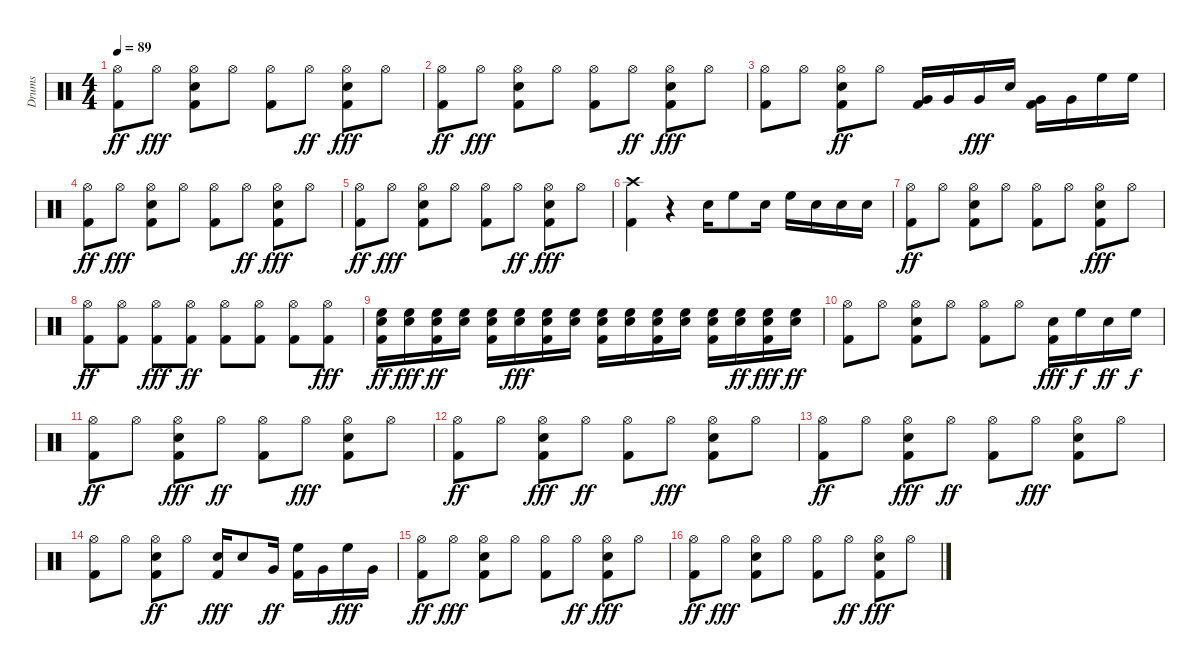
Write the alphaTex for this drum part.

\track ("Drums" "Drums") {instrument percussion}
\staff {score}
\articulation defaults
\ts (4 4)
\tempo 89
\clef neutral
\ks c
("Kick (hit) 2" "Hi-Hat (open)").8{dy ff} "Hi-Hat (open)".8{dy fff} ("Kick (hit) 2" "Snare (hit) 2" "Hi-Hat (open)").8 "Hi-Hat (open)".8 ("Kick (hit) 2" "Hi-Hat (open)").8 "Hi-Hat (open)".8{dy ff} ("Kick (hit) 2" "Hi-Hat (open)" "Snare (hit) 2").8{dy fff} "Hi-Hat (open)".8 |
("Kick (hit) 2" "Hi-Hat (open)").8{dy ff} "Hi-Hat (open)".8{dy fff} ("Kick (hit) 2" "Snare (hit) 2" "Hi-Hat (open)").8 "Hi-Hat (open)".8 ("Kick (hit) 2" "Hi-Hat (open)").8 "Hi-Hat (open)".8{dy ff} ("Kick (hit) 2" "Hi-Hat (open)" "Snare (hit) 2").8{dy fff} "Hi-Hat (open)".8 |
("Kick (hit) 2" "Hi-Hat (open)").8 "Hi-Hat (open)".8 ("Kick (hit) 2" "Hi-Hat (open)" "Snare (hit) 2").8{dy ff} "Hi-Hat (open)".8 ("Kick (hit) 2" "Very Low Tom (hit)").16 "Very Low Tom (hit)".16 "Very Low Tom (hit)".16{dy fff} "Snare (hit) 2".16 ("Kick (hit) 2" "Very Low Tom (hit)").16 "Very Low Tom (hit)".16 "High Floor Tom (hit)".16 "High Floor Tom (hit)".16 |
("Kick (hit) 2" "Hi-Hat (open)").8{dy ff} "Hi-Hat (open)".8{dy fff} ("Kick (hit) 2" "Snare (hit) 2" "Hi-Hat (open)").8 "Hi-Hat (open)".8 ("Kick (hit) 2" "Hi-Hat (open)").8 "Hi-Hat (open)".8{dy ff} ("Kick (hit) 2" "Hi-Hat (open)" "Snare (hit) 2").8{dy fff} "Hi-Hat (open)".8 |
("Kick (hit) 2" "Hi-Hat (open)").8{dy ff} "Hi-Hat (open)".8{dy fff} ("Kick (hit) 2" "Snare (hit) 2" "Hi-Hat (open)").8 "Hi-Hat (open)".8 ("Kick (hit) 2" "Hi-Hat (open)").8 "Hi-Hat (open)".8{dy ff} ("Kick (hit) 2" "Hi-Hat (open)" "Snare (hit) 2").8{dy fff} "Hi-Hat (open)".8 |
("Crash high (hit)" "Kick (hit) 2").4 r.4 "Snare (hit) 2".16 "High Floor Tom (hit)".8 "Snare (hit) 2".16 "High Floor Tom (hit)".16 "Snare (hit) 2".16 "Snare (hit) 2".16 "Snare (hit) 2".16 |
("Kick (hit) 2" "Hi-Hat (open)").8{dy ff} "Hi-Hat (open)".8 ("Kick (hit) 2" "Snare (hit) 2" "Hi-Hat (open)").8 "Hi-Hat (open)".8 ("Kick (hit) 2" "Hi-Hat (open)").8 "Hi-Hat (open)".8 ("Kick (hit) 2" "Hi-Hat (open)" "Snare (hit) 2").8{dy fff} "Hi-Hat (open)".8 |
("Kick (hit) 2" "Hi-Hat (open)").8{dy ff} ("Hi-Hat (open)" "Kick (hit) 2").8 ("Hi-Hat (open)" "Kick (hit) 2").8{dy fff} ("Hi-Hat (open)" "Kick (hit) 2").8{dy ff} ("Hi-Hat (open)" "Kick (hit) 2").8 ("Kick (hit) 2" "Hi-Hat (open)").8 ("Hi-Hat (open)" "Kick (hit) 2").8 ("Hi-Hat (open)" "Kick (hit) 2").8{dy fff} |
("Kick (hit) 2" "Snare (hit) 2" "High Floor Tom (hit)").16{dy ff} ("High Floor Tom (hit)" "Snare (hit) 2").16{dy fff} ("Kick (hit) 2" "Snare (hit) 2" "High Floor Tom (hit)").16{dy ff} ("High Floor Tom (hit)" "Snare (hit) 2").16 ("Kick (hit) 2" "High Floor Tom (hit)" "Snare (hit) 2").16 ("High Floor Tom (hit)" "Snare (hit) 2").16{dy fff} ("Kick (hit) 2" "High Floor Tom (hit)" "Snare (hit) 2").16 ("High Floor Tom (hit)" "Snare (hit) 2").16 ("Kick (hit) 2" "High Floor Tom (hit)" "Snare (hit) 2").16 ("High Floor Tom (hit)" "Snare (hit) 2").16 ("Kick (hit) 2" "High Floor Tom (hit)" "Snare (hit) 2").16 ("High Floor Tom (hit)" "Snare (hit) 2").16 ("Kick (hit) 2" "High Floor Tom (hit)" "Snare (hit) 2").16 ("Snare (hit) 2" "High Floor Tom (hit)").16{dy ff} ("Kick (hit) 2" "High Floor Tom (hit)" "Snare (hit) 2").16{dy fff} ("Snare (hit) 2" "High Floor Tom (hit)").16{dy ff} |
("Kick (hit) 2" "Hi-Hat (open)").8 "Hi-Hat (open)".8 ("Kick (hit) 2" "Snare (hit) 2" "Hi-Hat (open)").8 "Hi-Hat (open)".8 ("Kick (hit) 2" "Hi-Hat (open)").8 "Hi-Hat (open)".8 ("Kick (hit) 2" "Snare (hit) 2").16{dy fff} "High Floor Tom (hit)".16{dy f} "Snare (hit) 2".16{dy ff} "High Floor Tom (hit)".16{dy f} |
("Kick (hit) 2" "Hi-Hat (open)").8{dy ff} "Hi-Hat (open)".8 ("Kick (hit) 2" "Hi-Hat (open)" "Snare (hit) 2").8{dy fff} "Hi-Hat (open)".8{dy ff} ("Kick (hit) 2" "Hi-Hat (open)").8 "Hi-Hat (open)".8{dy fff} ("Kick (hit) 2" "Hi-Hat (open)" "Snare (hit) 2").8 "Hi-Hat (open)".8 |
("Kick (hit) 2" "Hi-Hat (open)").8{dy ff} "Hi-Hat (open)".8 ("Kick (hit) 2" "Hi-Hat (open)" "Snare (hit) 2").8{dy fff} "Hi-Hat (open)".8{dy ff} ("Kick (hit) 2" "Hi-Hat (open)").8 "Hi-Hat (open)".8{dy fff} ("Kick (hit) 2" "Hi-Hat (open)" "Snare (hit) 2").8 "Hi-Hat (open)".8 |
("Kick (hit) 2" "Hi-Hat (open)").8{dy ff} "Hi-Hat (open)".8 ("Kick (hit) 2" "Hi-Hat (open)" "Snare (hit) 2").8{dy fff} "Hi-Hat (open)".8{dy ff} ("Kick (hit) 2" "Hi-Hat (open)").8 "Hi-Hat (open)".8{dy fff} ("Kick (hit) 2" "Hi-Hat (open)" "Snare (hit) 2").8 "Hi-Hat (open)".8 |
("Kick (hit) 2" "Hi-Hat (open)").8 "Hi-Hat (open)".8 ("Kick (hit) 2" "Snare (hit) 2" "Hi-Hat (open)").8{dy ff} "Hi-Hat (open)".8 ("Kick (hit) 2" "Snare (hit) 2").16{dy fff} "Snare (hit) 2".8 "Very Low Tom (hit)".16{dy ff} ("Kick (hit) 2" "High Floor Tom (hit)").16 "Very Low Tom (hit)".16 "High Floor Tom (hit)".16{dy fff} "Very Low Tom (hit)".16 |
("Kick (hit) 2" "Hi-Hat (open)").8{dy ff} "Hi-Hat (open)".8{dy fff} ("Kick (hit) 2" "Snare (hit) 2" "Hi-Hat (open)").8 "Hi-Hat (open)".8 ("Kick (hit) 2" "Hi-Hat (open)").8 "Hi-Hat (open)".8{dy ff} ("Kick (hit) 2" "Hi-Hat (open)" "Snare (hit) 2").8{dy fff} "Hi-Hat (open)".8 |
("Kick (hit) 2" "Hi-Hat (open)").8{dy ff} "Hi-Hat (open)".8{dy fff} ("Kick (hit) 2" "Snare (hit) 2" "Hi-Hat (open)").8 "Hi-Hat (open)".8 ("Kick (hit) 2" "Hi-Hat (open)").8 "Hi-Hat (open)".8{dy ff} ("Kick (hit) 2" "Hi-Hat (open)" "Snare (hit) 2").8{dy fff} "Hi-Hat (open)".8
